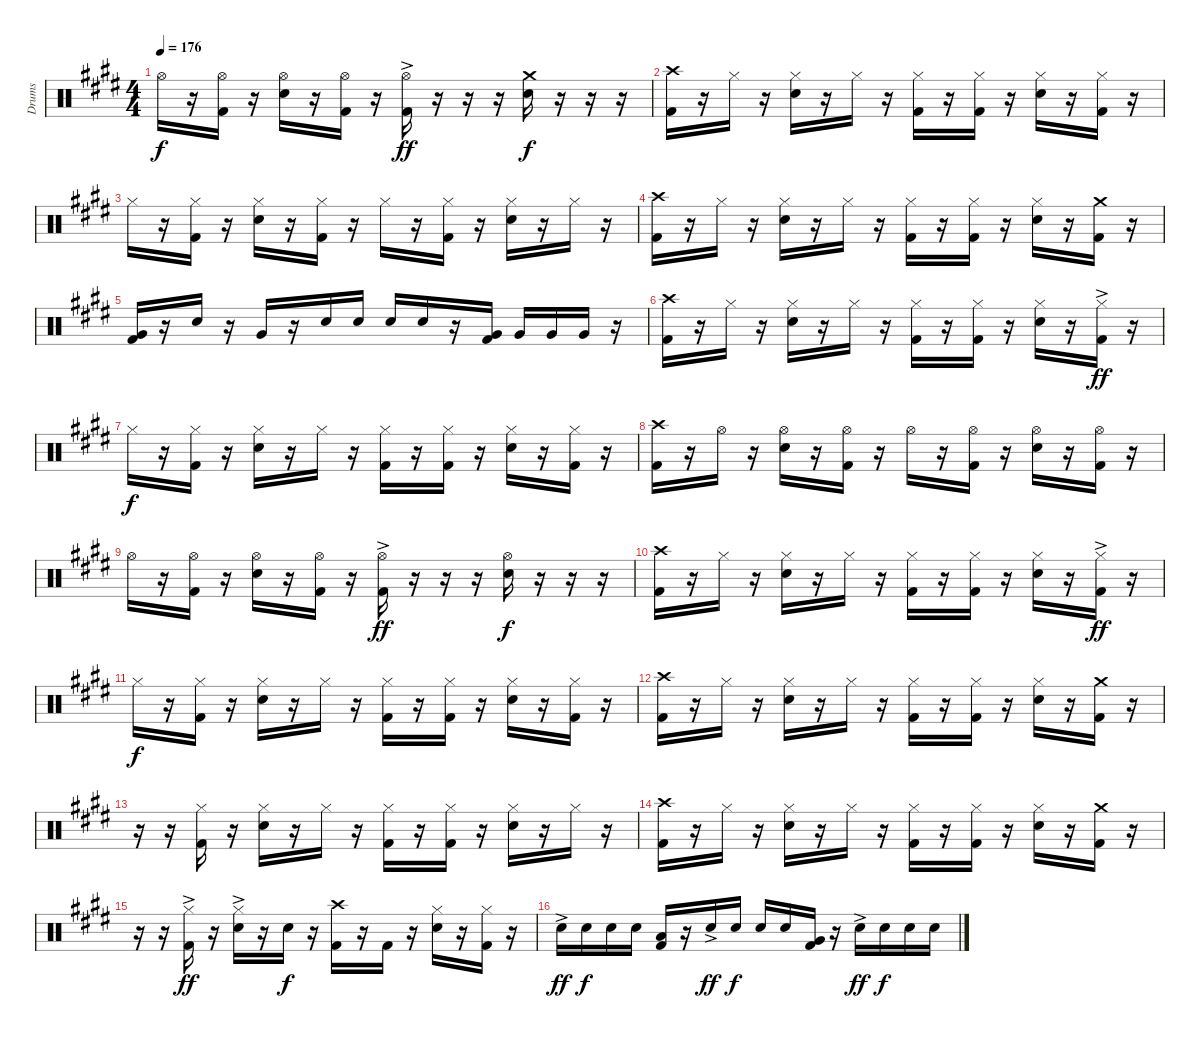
\track ("Drums" "Drums") {instrument percussion}
\staff {score}
\articulation defaults
\ts (4 4)
\tempo 176
\clef neutral
\ks e "Hi-Hat (open)".16{dy f}
r.16 ("Hi-Hat (open)" "Kick (hit) 2").16 r.16 ("Hi-Hat (open)" "Electric Snare (hit)").16 r.16 ("Hi-Hat (open)" "Kick (hit) 2").16 r.16 ("Hi-Hat (open)"{ac} "Kick (hit) 2").16{dy ff} r.16 r.16 r.16 ("Crash medium (hit)" "Electric Snare (hit)").16{dy f} r.16 r.16 r.16 |
("Crash high (hit)" "Kick (hit) 2").16 r.16 "Hi-Hat (closed)".16 r.16 ("Hi-Hat (closed)" "Electric Snare (hit)").16 r.16 "Hi-Hat (closed)".16 r.16 ("Hi-Hat (closed)" "Kick (hit) 2").16 r.16 ("Hi-Hat (closed)" "Kick (hit) 2").16 r.16 ("Hi-Hat (closed)" "Electric Snare (hit)").16 r.16 ("Hi-Hat (closed)" "Kick (hit) 2").16 r.16 |
"Hi-Hat (closed)".16 r.16 ("Hi-Hat (closed)" "Kick (hit) 2").16 r.16 ("Hi-Hat (closed)" "Electric Snare (hit)").16 r.16 ("Hi-Hat (closed)" "Kick (hit) 2").16 r.16 "Hi-Hat (closed)".16 r.16 ("Hi-Hat (closed)" "Kick (hit) 2").16 r.16 ("Hi-Hat (closed)" "Electric Snare (hit)").16 r.16 "Hi-Hat (closed)".16 r.16 |
("Crash high (hit)" "Kick (hit) 2").16 r.16 "Hi-Hat (closed)".16 r.16 ("Hi-Hat (closed)" "Electric Snare (hit)").16 r.16 "Hi-Hat (closed)".16 r.16 ("Hi-Hat (closed)" "Kick (hit) 2").16 r.16 ("Hi-Hat (closed)" "Kick (hit) 2").16 r.16 ("Hi-Hat (closed)" "Electric Snare (hit)").16 r.16 ("Crash medium (hit)" "Kick (hit) 2").16 r.16 |
("Very Low Tom (hit)" "Kick (hit) 2").16 r.16 "Electric Snare (hit)".16 r.16 "Very Low Tom (hit)".16 r.16 "Electric Snare (hit)".16 "Electric Snare (hit)".16 "Electric Snare (hit)".16 "Electric Snare (hit)".16 r.16 ("Very Low Tom (hit)" "Kick (hit) 2").16 "Very Low Tom (hit)".16 "Very Low Tom (hit)".16 "Very Low Tom (hit)".16 r.16 |
("Crash high (hit)" "Kick (hit) 2").16 r.16 "Hi-Hat (closed)".16 r.16 ("Hi-Hat (closed)" "Electric Snare (hit)").16 r.16 "Hi-Hat (closed)".16 r.16 ("Hi-Hat (closed)" "Kick (hit) 2").16 r.16 ("Hi-Hat (closed)" "Kick (hit) 2").16 r.16 ("Hi-Hat (closed)" "Electric Snare (hit)").16 r.16 ("Hi-Hat (closed)"{ac} "Kick (hit) 2").16{dy ff} r.16 |
"Hi-Hat (closed)".16{dy f} r.16 ("Hi-Hat (closed)" "Kick (hit) 2").16 r.16 ("Hi-Hat (closed)" "Electric Snare (hit)").16 r.16 "Hi-Hat (closed)".16 r.16 ("Hi-Hat (closed)" "Kick (hit) 2").16 r.16 ("Hi-Hat (closed)" "Kick (hit) 2").16 r.16 ("Hi-Hat (closed)" "Electric Snare (hit)").16 r.16 ("Hi-Hat (closed)" "Kick (hit) 2").16 r.16 |
("Crash high (hit)" "Kick (hit) 2").16 r.16 "Hi-Hat (open)".16 r.16 ("Hi-Hat (open)" "Electric Snare (hit)").16 r.16 ("Hi-Hat (open)" "Kick (hit) 2").16 r.16 "Hi-Hat (open)".16 r.16 ("Hi-Hat (open)" "Kick (hit) 2").16 r.16 ("Hi-Hat (open)" "Electric Snare (hit)").16 r.16 ("Hi-Hat (open)" "Kick (hit) 2").16 r.16 |
"Hi-Hat (open)".16 r.16 ("Hi-Hat (open)" "Kick (hit) 2").16 r.16 ("Hi-Hat (open)" "Electric Snare (hit)").16 r.16 ("Hi-Hat (open)" "Kick (hit) 2").16 r.16 ("Hi-Hat (open)"{ac} "Kick (hit) 2").16{dy ff} r.16 r.16 r.16 ("Hi-Hat (open)" "Electric Snare (hit)").16{dy f} r.16 r.16 r.16 |
("Crash high (hit)" "Kick (hit) 2").16 r.16 "Hi-Hat (closed)".16 r.16 ("Hi-Hat (closed)" "Electric Snare (hit)").16 r.16 "Hi-Hat (closed)".16 r.16 ("Hi-Hat (closed)" "Kick (hit) 2").16 r.16 ("Hi-Hat (closed)" "Kick (hit) 2").16 r.16 ("Hi-Hat (closed)" "Electric Snare (hit)").16 r.16 ("Hi-Hat (closed)"{ac} "Kick (hit) 2").16{dy ff} r.16 |
"Hi-Hat (closed)".16{dy f} r.16 ("Hi-Hat (closed)" "Kick (hit) 2").16 r.16 ("Hi-Hat (closed)" "Electric Snare (hit)").16 r.16 "Hi-Hat (closed)".16 r.16 ("Hi-Hat (closed)" "Kick (hit) 2").16 r.16 ("Hi-Hat (closed)" "Kick (hit) 2").16 r.16 ("Hi-Hat (closed)" "Electric Snare (hit)").16 r.16 ("Hi-Hat (closed)" "Kick (hit) 2").16 r.16 |
("Crash high (hit)" "Kick (hit) 2").16 r.16 "Hi-Hat (closed)".16 r.16 ("Hi-Hat (closed)" "Electric Snare (hit)").16 r.16 "Hi-Hat (closed)".16 r.16 ("Hi-Hat (closed)" "Kick (hit) 2").16 r.16 ("Hi-Hat (closed)" "Kick (hit) 2").16 r.16 ("Hi-Hat (closed)" "Electric Snare (hit)").16 r.16 ("Crash medium (hit)" "Kick (hit) 2").16 r.16 |
r.16 r.16 ("Hi-Hat (closed)" "Kick (hit) 2").16 r.16 ("Hi-Hat (closed)" "Electric Snare (hit)").16 r.16 "Hi-Hat (closed)".16 r.16 ("Hi-Hat (closed)" "Kick (hit) 2").16 r.16 ("Hi-Hat (closed)" "Kick (hit) 2").16 r.16 ("Hi-Hat (closed)" "Electric Snare (hit)").16 r.16 "Hi-Hat (closed)".16 r.16 |
("Crash high (hit)" "Kick (hit) 2").16 r.16 "Hi-Hat (closed)".16 r.16 ("Hi-Hat (closed)" "Electric Snare (hit)").16 r.16 "Hi-Hat (closed)".16 r.16 ("Hi-Hat (closed)" "Kick (hit) 2").16 r.16 ("Hi-Hat (closed)" "Kick (hit) 2").16 r.16 ("Hi-Hat (closed)" "Electric Snare (hit)").16 r.16 ("Crash medium (hit)" "Kick (hit) 2").16 r.16 |
r.16 r.16 ("Hi-Hat (closed)"{ac} "Kick (hit) 2").16{dy ff} r.16 ("Hi-Hat (closed)"{ac} "Electric Snare (hit)").16 r.16 "Electric Snare (hit)".16{dy f} r.16 ("Crash high (hit)" "Kick (hit) 2").16 r.16 "Kick (hit) 2".16 r.16 ("Hi-Hat (closed)" "Electric Snare (hit)").16 r.16 ("Hi-Hat (closed)" "Kick (hit) 2").16 r.16 |
"Electric Snare (hit)"{ac}.16{dy ff} "Electric Snare (hit)".16{dy f} "Electric Snare (hit)".16 "Electric Snare (hit)".16 ("Low Tom (hit)" "Kick (hit) 2").16 r.16 "Electric Snare (hit)"{ac}.16{dy ff} "Electric Snare (hit)".16{dy f} "Electric Snare (hit)".16 "Electric Snare (hit)".16 ("Very Low Tom (hit)" "Kick (hit) 2").16 r.16 "Electric Snare (hit)"{ac}.16{dy ff} "Electric Snare (hit)".16{dy f} "Electric Snare (hit)".16 "Electric Snare (hit)".16
